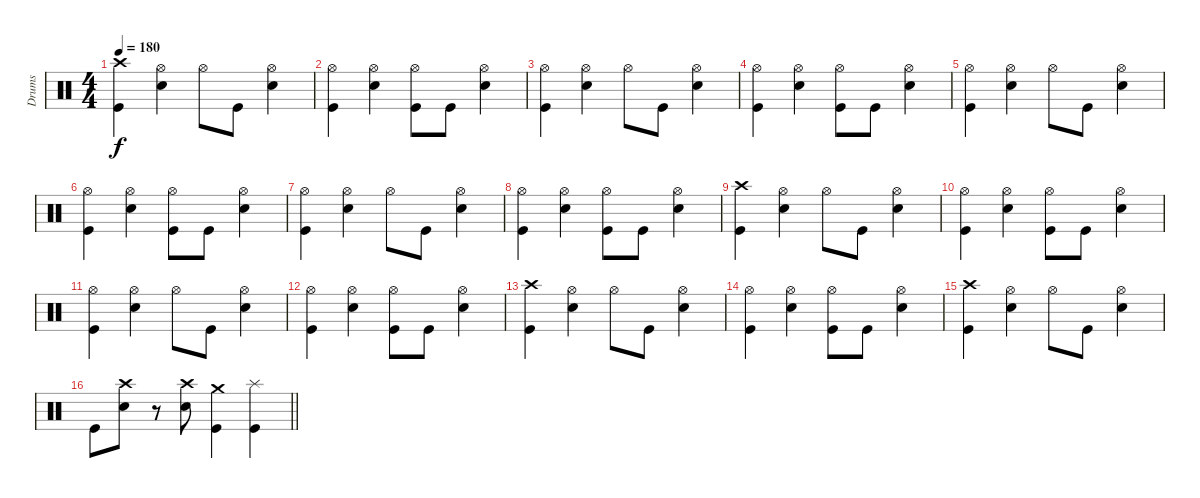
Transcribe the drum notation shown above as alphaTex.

\track ("Drums" "Drums") {instrument percussion}
\staff {score}
\articulation defaults
\ts (4 4)
\tempo 180
\clef neutral
\ks c
("Crash high (hit)" "Kick (hit)").4{dy f} ("Hi-Hat (open)" "Snare (hit) 2").4 "Hi-Hat (open)".8 "Kick (hit)".8 ("Hi-Hat (open)" "Snare (hit) 2").4 |
("Hi-Hat (open)" "Kick (hit)").4 ("Hi-Hat (open)" "Snare (hit) 2").4 ("Hi-Hat (open)" "Kick (hit)").8 "Kick (hit)".8 ("Hi-Hat (open)" "Snare (hit) 2").4 |
("Hi-Hat (open)" "Kick (hit)").4 ("Hi-Hat (open)" "Snare (hit) 2").4 "Hi-Hat (open)".8 "Kick (hit)".8 ("Hi-Hat (open)" "Snare (hit) 2").4 |
("Hi-Hat (open)" "Kick (hit)").4 ("Hi-Hat (open)" "Snare (hit) 2").4 ("Hi-Hat (open)" "Kick (hit)").8 "Kick (hit)".8 ("Hi-Hat (open)" "Snare (hit) 2").4 |
("Hi-Hat (open)" "Kick (hit)").4 ("Hi-Hat (open)" "Snare (hit) 2").4 "Hi-Hat (open)".8 "Kick (hit)".8 ("Hi-Hat (open)" "Snare (hit) 2").4 |
("Hi-Hat (open)" "Kick (hit)").4 ("Hi-Hat (open)" "Snare (hit) 2").4 ("Hi-Hat (open)" "Kick (hit)").8 "Kick (hit)".8 ("Hi-Hat (open)" "Snare (hit) 2").4 |
("Hi-Hat (open)" "Kick (hit)").4 ("Hi-Hat (open)" "Snare (hit) 2").4 "Hi-Hat (open)".8 "Kick (hit)".8 ("Hi-Hat (open)" "Snare (hit) 2").4 |
("Hi-Hat (open)" "Kick (hit)").4 ("Hi-Hat (open)" "Snare (hit) 2").4 ("Hi-Hat (open)" "Kick (hit)").8 "Kick (hit)".8 ("Hi-Hat (open)" "Snare (hit) 2").4 |
("Crash high (hit)" "Kick (hit)").4 ("Hi-Hat (open)" "Snare (hit) 2").4 "Hi-Hat (open)".8 "Kick (hit)".8 ("Hi-Hat (open)" "Snare (hit) 2").4 |
("Hi-Hat (open)" "Kick (hit)").4 ("Hi-Hat (open)" "Snare (hit) 2").4 ("Hi-Hat (open)" "Kick (hit)").8 "Kick (hit)".8 ("Hi-Hat (open)" "Snare (hit) 2").4 |
("Hi-Hat (open)" "Kick (hit)").4 ("Hi-Hat (open)" "Snare (hit) 2").4 "Hi-Hat (open)".8 "Kick (hit)".8 ("Hi-Hat (open)" "Snare (hit) 2").4 |
("Hi-Hat (open)" "Kick (hit)").4 ("Hi-Hat (open)" "Snare (hit) 2").4 ("Hi-Hat (open)" "Kick (hit)").8 "Kick (hit)".8 ("Hi-Hat (open)" "Snare (hit) 2").4 |
("Crash high (hit)" "Kick (hit)").4 ("Hi-Hat (open)" "Snare (hit) 2").4 "Hi-Hat (open)".8 "Kick (hit)".8 ("Hi-Hat (open)" "Snare (hit) 2").4 |
("Hi-Hat (open)" "Kick (hit)").4 ("Hi-Hat (open)" "Snare (hit) 2").4 ("Hi-Hat (open)" "Kick (hit)").8 "Kick (hit)".8 ("Hi-Hat (open)" "Snare (hit) 2").4 |
("Crash high (hit)" "Kick (hit)").4 ("Hi-Hat (open)" "Snare (hit) 2").4 "Hi-Hat (open)".8 "Kick (hit)".8 ("Hi-Hat (open)" "Snare (hit) 2").4 |
\barLineRight lightlight "Kick (hit)".8
("Crash high (hit)" "Snare (hit) 2").8 r.8 ("Crash high (hit)" "Snare (hit) 2").8 ("Crash medium (hit)" "Kick (hit)").4 ("Splash (hit)" "Kick (hit)").4
